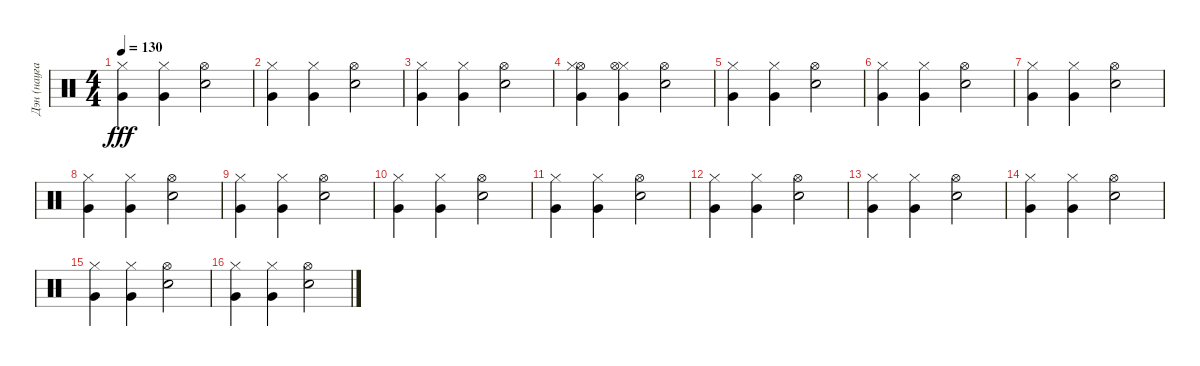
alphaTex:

\track ("Дэн (наугад))" "Дэн (науга") {instrument percussion}
\staff {score}
\articulation defaults
\ts (4 4)
\tempo 130
\clef neutral
\ks c
("Hi-Hat (closed)" "Very Low Tom (hit)").4{dy fff} ("Very Low Tom (hit)" "Hi-Hat (closed)").4 ("Snare (hit) 2" "Hi-Hat (open)").2 |
("Hi-Hat (closed)" "Very Low Tom (hit)").4 ("Very Low Tom (hit)" "Hi-Hat (closed)").4 ("Snare (hit) 2" "Hi-Hat (open)").2 |
("Hi-Hat (closed)" "Very Low Tom (hit)").4 ("Very Low Tom (hit)" "Hi-Hat (closed)").4 ("Snare (hit) 2" "Hi-Hat (open)").2 |
("Hi-Hat (open)" "Hi-Hat (closed)" "Very Low Tom (hit)").4 ("Very Low Tom (hit)" "Hi-Hat (closed)" "Hi-Hat (open)").4 ("Snare (hit) 2" "Hi-Hat (open)").2 |
("Hi-Hat (closed)" "Very Low Tom (hit)").4 ("Very Low Tom (hit)" "Hi-Hat (closed)").4 ("Snare (hit) 2" "Hi-Hat (open)").2 |
("Hi-Hat (closed)" "Very Low Tom (hit)").4 ("Very Low Tom (hit)" "Hi-Hat (closed)").4 ("Snare (hit) 2" "Hi-Hat (open)").2 |
("Hi-Hat (closed)" "Very Low Tom (hit)").4 ("Very Low Tom (hit)" "Hi-Hat (closed)").4 ("Snare (hit) 2" "Hi-Hat (open)").2 |
("Hi-Hat (closed)" "Very Low Tom (hit)").4 ("Very Low Tom (hit)" "Hi-Hat (closed)").4 ("Snare (hit) 2" "Hi-Hat (open)").2 |
("Hi-Hat (closed)" "Very Low Tom (hit)").4 ("Very Low Tom (hit)" "Hi-Hat (closed)").4 ("Snare (hit) 2" "Hi-Hat (open)").2 |
("Hi-Hat (closed)" "Very Low Tom (hit)").4 ("Very Low Tom (hit)" "Hi-Hat (closed)").4 ("Snare (hit) 2" "Hi-Hat (open)").2 |
("Hi-Hat (closed)" "Very Low Tom (hit)").4 ("Very Low Tom (hit)" "Hi-Hat (closed)").4 ("Snare (hit) 2" "Hi-Hat (open)").2 |
("Hi-Hat (closed)" "Very Low Tom (hit)").4 ("Very Low Tom (hit)" "Hi-Hat (closed)").4 ("Snare (hit) 2" "Hi-Hat (open)").2 |
("Hi-Hat (closed)" "Very Low Tom (hit)").4 ("Very Low Tom (hit)" "Hi-Hat (closed)").4 ("Snare (hit) 2" "Hi-Hat (open)").2 |
("Hi-Hat (closed)" "Very Low Tom (hit)").4 ("Very Low Tom (hit)" "Hi-Hat (closed)").4 ("Snare (hit) 2" "Hi-Hat (open)").2 |
("Hi-Hat (closed)" "Very Low Tom (hit)").4 ("Very Low Tom (hit)" "Hi-Hat (closed)").4 ("Snare (hit) 2" "Hi-Hat (open)").2 |
("Hi-Hat (closed)" "Very Low Tom (hit)").4 ("Very Low Tom (hit)" "Hi-Hat (closed)").4 ("Snare (hit) 2" "Hi-Hat (open)").2
